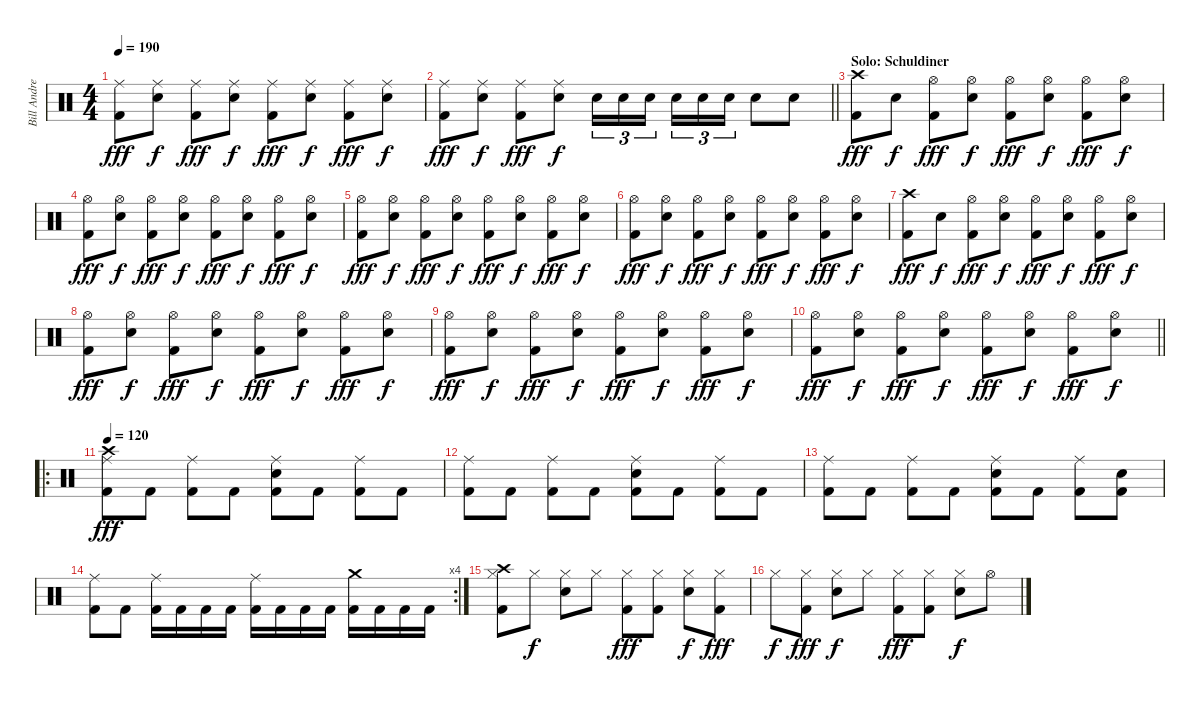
\track ("Bill Andrews" "Bill Andre") {instrument percussion}
\staff {score}
\articulation defaults
\ts (4 4)
\tempo 190
\clef neutral
\ks c
("Ride (middle)" "Kick (hit) 2").8{dy fff} ("Ride (middle)" "Electric Snare (hit)").8{dy f} ("Ride (middle)" "Kick (hit) 2").8{dy fff} ("Ride (middle)" "Electric Snare (hit)").8{dy f} ("Ride (middle)" "Kick (hit) 2").8{dy fff} ("Ride (middle)" "Electric Snare (hit)").8{dy f} ("Ride (middle)" "Kick (hit) 2").8{dy fff} ("Ride (middle)" "Electric Snare (hit)").8{dy f} |
\barLineRight lightlight
("Ride (middle)" "Kick (hit) 2").8{dy fff} ("Ride (middle)" "Electric Snare (hit)").8{dy f} ("Ride (middle)" "Kick (hit) 2").8{dy fff} ("Ride (middle)" "Electric Snare (hit)").8{dy f} "Electric Snare (hit)".16{tu (3 2)} "Electric Snare (hit)".16{tu (3 2)} "Electric Snare (hit)".16{tu (3 2) beam splitsecondary} "Electric Snare (hit)".16{tu (3 2)} "Electric Snare (hit)".16{tu (3 2)} "Electric Snare (hit)".16{tu (3 2)} "Electric Snare (hit)".8 "Electric Snare (hit)".8 |
\section ("" "Solo: Schuldiner")
("Crash high (hit)" "Kick (hit) 2").8{dy fff} "Electric Snare (hit)".8{dy f} ("Hi-Hat (open)" "Kick (hit) 2").8{dy fff} ("Hi-Hat (open)" "Electric Snare (hit)").8{dy f} ("Hi-Hat (open)" "Kick (hit) 2").8{dy fff} ("Hi-Hat (open)" "Electric Snare (hit)").8{dy f} ("Hi-Hat (open)" "Kick (hit) 2").8{dy fff} ("Hi-Hat (open)" "Electric Snare (hit)").8{dy f} |
("Hi-Hat (open)" "Kick (hit) 2").8{dy fff} ("Hi-Hat (open)" "Electric Snare (hit)").8{dy f} ("Hi-Hat (open)" "Kick (hit) 2").8{dy fff} ("Hi-Hat (open)" "Electric Snare (hit)").8{dy f} ("Hi-Hat (open)" "Kick (hit) 2").8{dy fff} ("Hi-Hat (open)" "Electric Snare (hit)").8{dy f} ("Hi-Hat (open)" "Kick (hit) 2").8{dy fff} ("Hi-Hat (open)" "Electric Snare (hit)").8{dy f} |
("Hi-Hat (open)" "Kick (hit) 2").8{dy fff} ("Hi-Hat (open)" "Electric Snare (hit)").8{dy f} ("Hi-Hat (open)" "Kick (hit) 2").8{dy fff} ("Hi-Hat (open)" "Electric Snare (hit)").8{dy f} ("Hi-Hat (open)" "Kick (hit) 2").8{dy fff} ("Hi-Hat (open)" "Electric Snare (hit)").8{dy f} ("Hi-Hat (open)" "Kick (hit) 2").8{dy fff} ("Hi-Hat (open)" "Electric Snare (hit)").8{dy f} |
("Hi-Hat (open)" "Kick (hit) 2").8{dy fff} ("Hi-Hat (open)" "Electric Snare (hit)").8{dy f} ("Hi-Hat (open)" "Kick (hit) 2").8{dy fff} ("Hi-Hat (open)" "Electric Snare (hit)").8{dy f} ("Hi-Hat (open)" "Kick (hit) 2").8{dy fff} ("Hi-Hat (open)" "Electric Snare (hit)").8{dy f} ("Hi-Hat (open)" "Kick (hit) 2").8{dy fff} ("Hi-Hat (open)" "Electric Snare (hit)").8{dy f} |
("Crash high (hit)" "Kick (hit) 2").8{dy fff} "Electric Snare (hit)".8{dy f} ("Hi-Hat (open)" "Kick (hit) 2").8{dy fff} ("Hi-Hat (open)" "Electric Snare (hit)").8{dy f} ("Hi-Hat (open)" "Kick (hit) 2").8{dy fff} ("Hi-Hat (open)" "Electric Snare (hit)").8{dy f} ("Hi-Hat (open)" "Kick (hit) 2").8{dy fff} ("Hi-Hat (open)" "Electric Snare (hit)").8{dy f} |
("Hi-Hat (open)" "Kick (hit) 2").8{dy fff} ("Hi-Hat (open)" "Electric Snare (hit)").8{dy f} ("Hi-Hat (open)" "Kick (hit) 2").8{dy fff} ("Hi-Hat (open)" "Electric Snare (hit)").8{dy f} ("Hi-Hat (open)" "Kick (hit) 2").8{dy fff} ("Hi-Hat (open)" "Electric Snare (hit)").8{dy f} ("Hi-Hat (open)" "Kick (hit) 2").8{dy fff} ("Hi-Hat (open)" "Electric Snare (hit)").8{dy f} |
("Hi-Hat (open)" "Kick (hit) 2").8{dy fff} ("Hi-Hat (open)" "Electric Snare (hit)").8{dy f} ("Hi-Hat (open)" "Kick (hit) 2").8{dy fff} ("Hi-Hat (open)" "Electric Snare (hit)").8{dy f} ("Hi-Hat (open)" "Kick (hit) 2").8{dy fff} ("Hi-Hat (open)" "Electric Snare (hit)").8{dy f} ("Hi-Hat (open)" "Kick (hit) 2").8{dy fff} ("Hi-Hat (open)" "Electric Snare (hit)").8{dy f} |
\barLineRight lightlight
("Hi-Hat (open)" "Kick (hit) 2").8{dy fff} ("Hi-Hat (open)" "Electric Snare (hit)").8{dy f} ("Hi-Hat (open)" "Kick (hit) 2").8{dy fff} ("Hi-Hat (open)" "Electric Snare (hit)").8{dy f} ("Hi-Hat (open)" "Kick (hit) 2").8{dy fff} ("Hi-Hat (open)" "Electric Snare (hit)").8{dy f} ("Hi-Hat (open)" "Kick (hit) 2").8{dy fff} ("Hi-Hat (open)" "Electric Snare (hit)").8{dy f} |
\ro
\tempo 120
("Crash high (hit)" "Ride (middle)" "Kick (hit) 2").8{dy fff} "Kick (hit) 2".8 ("Ride (middle)" "Kick (hit) 2").8 "Kick (hit) 2".8 ("Ride (middle)" "Electric Snare (hit)" "Kick (hit) 2").8 "Kick (hit) 2".8 ("Ride (middle)" "Kick (hit) 2").8 "Kick (hit) 2".8 |
("Ride (middle)" "Kick (hit) 2").8 "Kick (hit) 2".8 ("Ride (middle)" "Kick (hit) 2").8 "Kick (hit) 2".8 ("Ride (middle)" "Electric Snare (hit)" "Kick (hit) 2").8 "Kick (hit) 2".8 ("Ride (middle)" "Kick (hit) 2").8 "Kick (hit) 2".8 |
("Ride (middle)" "Kick (hit) 2").8 "Kick (hit) 2".8 ("Ride (middle)" "Kick (hit) 2").8 "Kick (hit) 2".8 ("Ride (middle)" "Electric Snare (hit)" "Kick (hit) 2").8 "Kick (hit) 2".8 ("Ride (middle)" "Kick (hit) 2").8 ("Electric Snare (hit)" "Kick (hit) 2").8 |
\rc 4
("Ride (middle)" "Kick (hit) 2").8 "Kick (hit) 2".8 ("Ride (middle)" "Kick (hit) 2").16 "Kick (hit) 2".16 "Kick (hit) 2".16 "Kick (hit) 2".16 ("Ride (middle)" "Kick (hit) 2").16 "Kick (hit) 2".16 "Kick (hit) 2".16 "Kick (hit) 2".16 ("Crash medium (hit)" "Kick (hit) 2").16 "Kick (hit) 2".16 "Kick (hit) 2".16 "Kick (hit) 2".16 |
("Crash high (hit)" "Hi-Hat (closed)" "Kick (hit) 2").8 "Hi-Hat (closed)".8{dy f} ("Hi-Hat (closed)" "Electric Snare (hit)").8 "Hi-Hat (closed)".8 ("Hi-Hat (closed)" "Kick (hit) 2").8{dy fff} ("Hi-Hat (closed)" "Kick (hit) 2").8 ("Hi-Hat (closed)" "Electric Snare (hit)").8{dy f} ("Hi-Hat (closed)" "Kick (hit) 2").8{dy fff} |
"Hi-Hat (closed)".8{dy f} ("Hi-Hat (closed)" "Kick (hit) 2").8{dy fff} ("Hi-Hat (closed)" "Electric Snare (hit)").8{dy f} "Hi-Hat (closed)".8 ("Hi-Hat (closed)" "Kick (hit) 2").8{dy fff} ("Hi-Hat (closed)" "Kick (hit) 2").8 ("Hi-Hat (closed)" "Electric Snare (hit)").8{dy f} "Hi-Hat (open)".8
